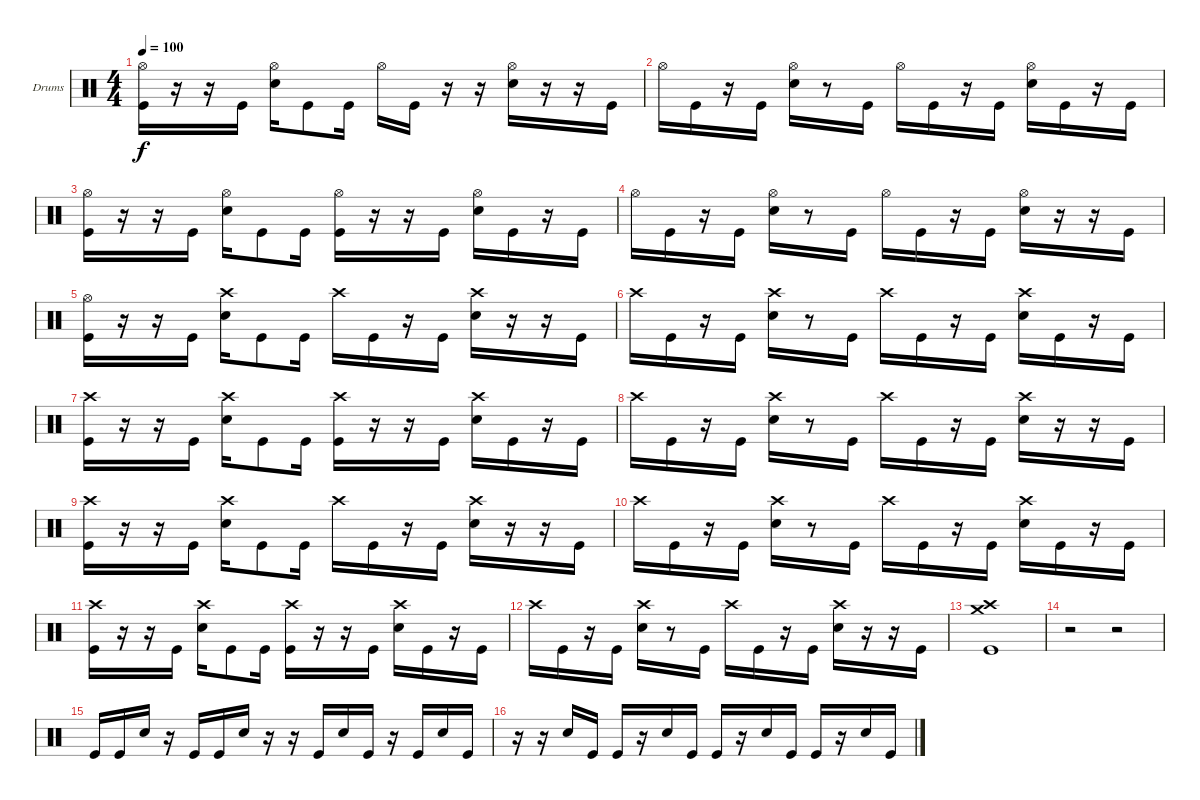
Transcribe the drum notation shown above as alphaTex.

\defaultSystemsLayout 4
\bracketExtendMode groupsimilarinstruments
\firstSystemTrackNameOrientation horizontal
\otherSystemsTrackNameOrientation horizontal
\track ("Drumkit" "Drums") {instrument percussion}
\staff {score}
\articulation defaults
\ts (4 4)
\tempo 100
\clef neutral
\scale
0.5
\ks c
("Hi-Hat (open)" "Kick (hit)").16{dy f} r.16 r.16 "Kick (hit)".16 ("Hi-Hat (open)" "Snare (hit) 2").16 "Kick (hit)".8 "Kick (hit)".16 "Hi-Hat (open)".16 "Kick (hit)".16 r.16 r.16 ("Hi-Hat (open)" "Snare (hit) 2").16 r.16 r.16 "Kick (hit)".16 |
\scale
0.5 "Hi-Hat (open)".16 "Kick (hit)".16 r.16 "Kick (hit)".16 ("Hi-Hat (open)" "Snare (hit) 2").16 r.8 "Kick (hit)".16 "Hi-Hat (open)".16 "Kick (hit)".16 r.16 "Kick (hit)".16 ("Hi-Hat (open)" "Snare (hit) 2").16 "Kick (hit)".16 r.16 "Kick (hit)".16 |
\scale
0.5 ("Hi-Hat (open)" "Kick (hit)").16 r.16 r.16 "Kick (hit)".16 ("Hi-Hat (open)" "Snare (hit) 2").16 "Kick (hit)".8 "Kick (hit)".16 ("Hi-Hat (open)" "Kick (hit)").16 r.16 r.16 "Kick (hit)".16 ("Hi-Hat (open)" "Snare (hit) 2").16 "Kick (hit)".16 r.16 "Kick (hit)".16 |
\scale
0.5 "Hi-Hat (open)".16 "Kick (hit)".16 r.16 "Kick (hit)".16 ("Hi-Hat (open)" "Snare (hit) 2").16 r.8 "Kick (hit)".16 "Hi-Hat (open)".16 "Kick (hit)".16 r.16 "Kick (hit)".16 ("Hi-Hat (open)" "Snare (hit) 2").16 r.16 r.16 "Kick (hit)".16 |
\scale
0.5 ("Hi-Hat (open)" "Kick (hit)").16 r.16 r.16 "Kick (hit)".16 ("Crash high (hit)" "Snare (hit) 2").16 "Kick (hit)".8 "Kick (hit)".16 "Crash high (hit)".16 "Kick (hit)".16 r.16 "Kick (hit)".16 ("Crash high (hit)" "Snare (hit) 2").16 r.16 r.16 "Kick (hit)".16 |
\scale
0.5 "Crash high (hit)".16 "Kick (hit)".16 r.16 "Kick (hit)".16 ("Crash high (hit)" "Snare (hit) 2").16 r.8 "Kick (hit)".16 "Crash high (hit)".16 "Kick (hit)".16 r.16 "Kick (hit)".16 ("Crash high (hit)" "Snare (hit) 2").16 "Kick (hit)".16 r.16 "Kick (hit)".16 |
\scale
0.5 ("Crash high (hit)" "Kick (hit)").16 r.16 r.16 "Kick (hit)".16 ("Crash high (hit)" "Snare (hit) 2").16 "Kick (hit)".8 "Kick (hit)".16 ("Crash high (hit)" "Kick (hit)").16 r.16 r.16 "Kick (hit)".16 ("Crash high (hit)" "Snare (hit) 2").16 "Kick (hit)".16 r.16 "Kick (hit)".16 |
\scale
0.5 "Crash high (hit)".16 "Kick (hit)".16 r.16 "Kick (hit)".16 ("Crash high (hit)" "Snare (hit) 2").16 r.8 "Kick (hit)".16 "Crash high (hit)".16 "Kick (hit)".16 r.16 "Kick (hit)".16 ("Crash high (hit)" "Snare (hit) 2").16 r.16 r.16 "Kick (hit)".16 |
\scale
0.5 ("Crash high (hit)" "Kick (hit)").16 r.16 r.16 "Kick (hit)".16 ("Crash high (hit)" "Snare (hit) 2").16 "Kick (hit)".8 "Kick (hit)".16 "Crash high (hit)".16 "Kick (hit)".16 r.16 "Kick (hit)".16 ("Crash high (hit)" "Snare (hit) 2").16 r.16 r.16 "Kick (hit)".16 |
\scale
0.5 "Crash high (hit)".16 "Kick (hit)".16 r.16 "Kick (hit)".16 ("Crash high (hit)" "Snare (hit) 2").16 r.8 "Kick (hit)".16 "Crash high (hit)".16 "Kick (hit)".16 r.16 "Kick (hit)".16 ("Crash high (hit)" "Snare (hit) 2").16 "Kick (hit)".16 r.16 "Kick (hit)".16 |
\scale
0.5 ("Crash high (hit)" "Kick (hit)").16 r.16 r.16 "Kick (hit)".16 ("Crash high (hit)" "Snare (hit) 2").16 "Kick (hit)".8 "Kick (hit)".16 ("Crash high (hit)" "Kick (hit)").16 r.16 r.16 "Kick (hit)".16 ("Crash high (hit)" "Snare (hit) 2").16 "Kick (hit)".16 r.16 "Kick (hit)".16 |
\scale
0.5 "Crash high (hit)".16 "Kick (hit)".16 r.16 "Kick (hit)".16 ("Crash high (hit)" "Snare (hit) 2").16 r.8 "Kick (hit)".16 "Crash high (hit)".16 "Kick (hit)".16 r.16 "Kick (hit)".16 ("Crash high (hit)" "Snare (hit) 2").16 r.16 r.16 "Kick (hit)".16 |
\scale
0.386667 ("Crash medium (hit)" "Crash high (hit)" "Kick (hit)").1 |
\scale
0.613333 r.2 r.2 |
\scale
0.5 "Kick (hit)".16 "Kick (hit)".16 "Snare (hit) 2".16 r.16 "Kick (hit)".16 "Kick (hit)".16 "Snare (hit) 2".16 r.16 r.16 "Kick (hit)".16 "Snare (hit) 2".16 "Kick (hit)".16 r.16 "Kick (hit)".16 "Snare (hit) 2".16 "Kick (hit)".16 |
\scale
0.5 r.16 r.16 "Snare (hit) 2".16 "Kick (hit)".16 "Kick (hit)".16 r.16 "Snare (hit) 2".16 "Kick (hit)".16 "Kick (hit)".16 r.16 "Snare (hit) 2".16 "Kick (hit)".16 "Kick (hit)".16 r.16 "Snare (hit) 2".16 "Kick (hit)".16
